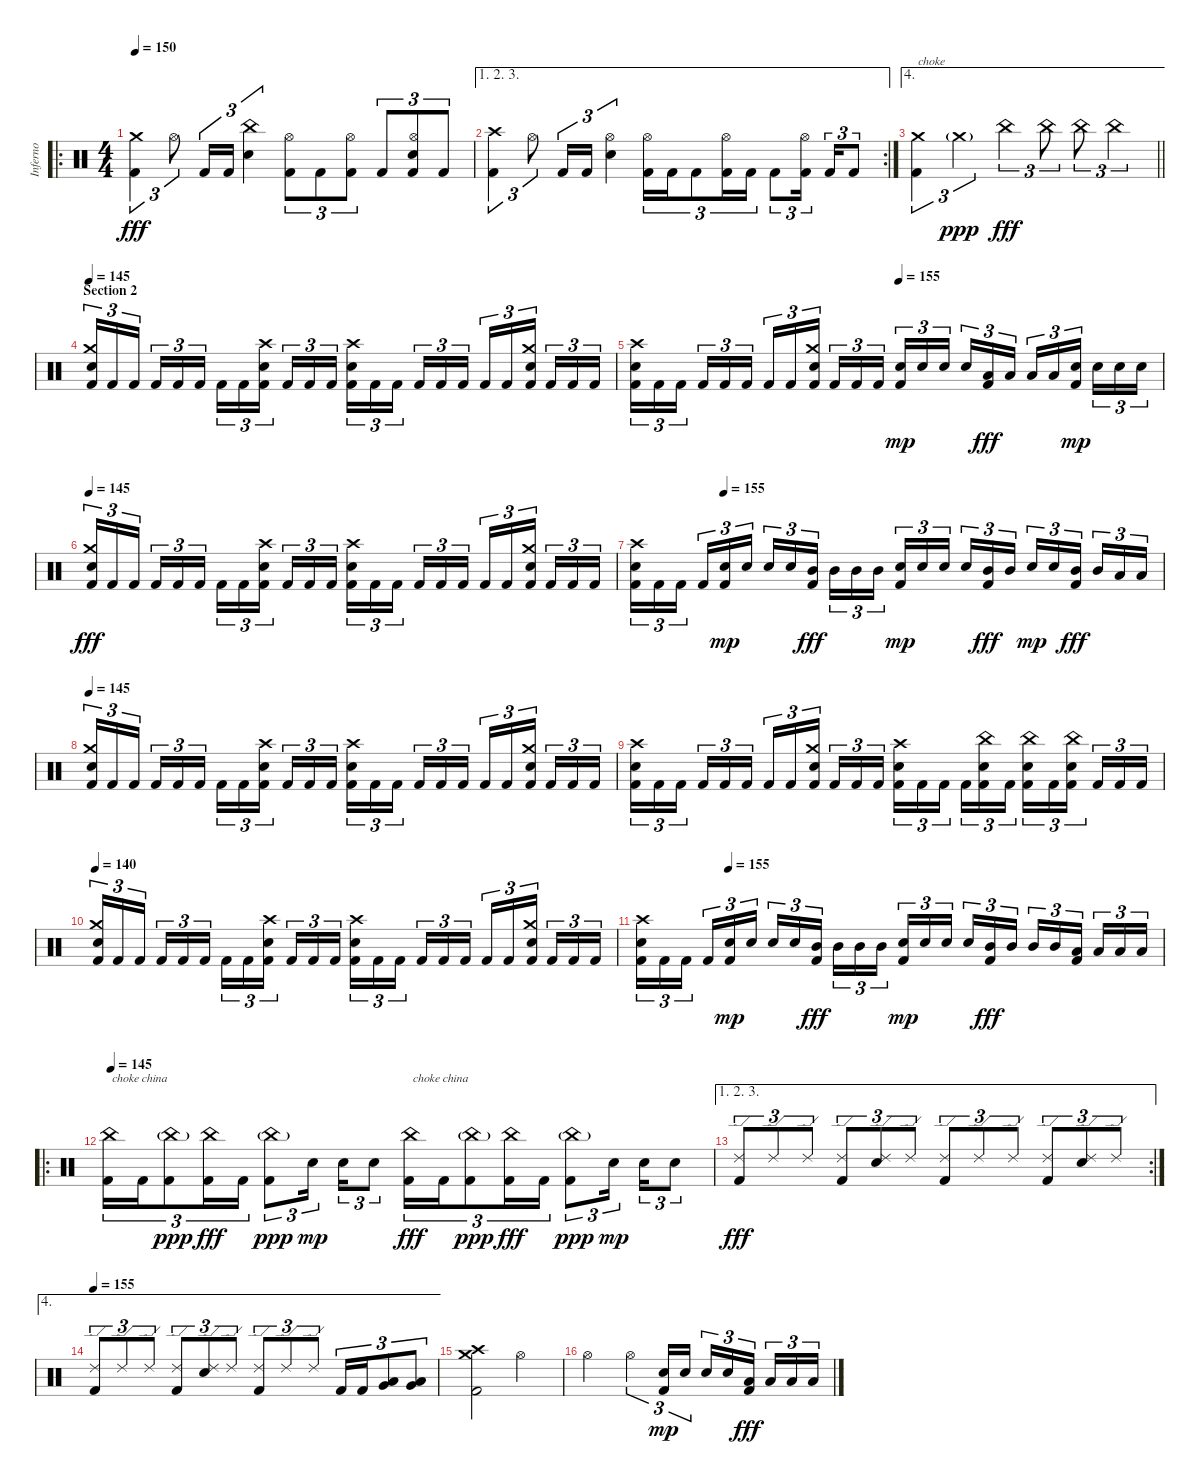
\track ("Inferno" "Inferno") {instrument percussion}
\staff {score}
\articulation defaults
\ro
\ts (4 4)
\tempo 150
\clef neutral
\ks c
("Kick (hit) 2" "Crash medium (hit)").4{tu (3 2) dy fff} "Hi-Hat (open)".8{tu (3 2)} "Kick (hit) 2".16{tu (3 2)} "Kick (hit) 2".16{tu (3 2)} ("Electric Snare (hit)" "China (hit)").4{tu (3 2)} ("Kick (hit) 2" "Hi-Hat (open)").8{tu (3 2)} "Kick (hit) 2".8{tu (3 2)} ("Kick (hit) 2" "Hi-Hat (open)").8{tu (3 2)} "Kick (hit) 2".8{tu (3 2)} ("Kick (hit) 2" "Electric Snare (hit)" "Hi-Hat (open)").8{tu (3 2)} "Kick (hit) 2".8{tu (3 2)} |
\ae (1 2 3)
\rc 2
("Kick (hit) 2" "Crash high (hit)").4{tu (3 2)} "Hi-Hat (open)".8{tu (3 2)} "Kick (hit) 2".16{tu (3 2)} "Kick (hit) 2".16{tu (3 2)} ("Electric Snare (hit)" "Hi-Hat (open)").4{tu (3 2)} ("Kick (hit) 2" "Hi-Hat (open)").16{tu (3 2)} "Kick (hit) 2".16{tu (3 2)} "Kick (hit) 2".8{tu (3 2)} ("Kick (hit) 2" "Hi-Hat (open)").16{tu (3 2)} "Kick (hit) 2".16{tu (3 2)} "Kick (hit) 2".8{tu (3 2)} ("Kick (hit) 2" "Hi-Hat (open)").16{tu (3 2) beam splitsecondary} "Kick (hit) 2".16{tu (3 2)} "Kick (hit) 2".8{tu (3 2)} |
\ae 4
\barLineRight lightlight
("Kick (hit) 2" "Crash medium (hit)").4{tu (3 2) txt "choke"} "Crash medium (hit)"{g}.2{tu (3 2) dy ppp} "China (hit)".4{tu (3 2) dy fff} "China (hit)".8{tu (3 2)} "China (hit)".8{tu (3 2)} "China (hit)".4{tu (3 2)} |
\section ("" "Section 2")
\tempo 145
("Kick (hit) 2" "Electric Snare (hit)" "Crash medium (hit)").16{tu (3 2)} "Kick (hit) 2".16{tu (3 2)} "Kick (hit) 2".16{tu (3 2) beam splitsecondary} "Kick (hit) 2".16{tu (3 2)} "Kick (hit) 2".16{tu (3 2)} "Kick (hit) 2".16{tu (3 2)} "Kick (hit) 2".16{tu (3 2)} "Kick (hit) 2".16{tu (3 2)} ("Kick (hit) 2" "Electric Snare (hit)" "Crash high (hit)").16{tu (3 2) beam splitsecondary} "Kick (hit) 2".16{tu (3 2)} "Kick (hit) 2".16{tu (3 2)} "Kick (hit) 2".16{tu (3 2)} ("Kick (hit) 2" "Electric Snare (hit)" "Crash high (hit)").16{tu (3 2)} "Kick (hit) 2".16{tu (3 2)} "Kick (hit) 2".16{tu (3 2) beam splitsecondary} "Kick (hit) 2".16{tu (3 2)} "Kick (hit) 2".16{tu (3 2)} "Kick (hit) 2".16{tu (3 2)} "Kick (hit) 2".16{tu (3 2)} "Kick (hit) 2".16{tu (3 2)} ("Kick (hit) 2" "Electric Snare (hit)" "Crash medium (hit)").16{tu (3 2) beam splitsecondary} "Kick (hit) 2".16{tu (3 2)} "Kick (hit) 2".16{tu (3 2)} "Kick (hit) 2".16{tu (3 2)} |
\tempo (155 0.5)
("Kick (hit) 2" "Electric Snare (hit)" "Crash high (hit)").16{tu (3 2)} "Kick (hit) 2".16{tu (3 2)} "Kick (hit) 2".16{tu (3 2) beam splitsecondary} "Kick (hit) 2".16{tu (3 2)} "Kick (hit) 2".16{tu (3 2)} "Kick (hit) 2".16{tu (3 2)} "Kick (hit) 2".16{tu (3 2)} "Kick (hit) 2".16{tu (3 2)} ("Kick (hit) 2" "Electric Snare (hit)" "Crash medium (hit)").16{tu (3 2) beam splitsecondary} "Kick (hit) 2".16{tu (3 2)} "Kick (hit) 2".16{tu (3 2)} "Kick (hit) 2".16{tu (3 2)} ("Kick (hit) 2" "Electric Snare (hit)").16{tu (3 2) dy mp} "Electric Snare (hit)".16{tu (3 2)} "Electric Snare (hit)".16{tu (3 2) beam splitsecondary} "Electric Snare (hit)".16{tu (3 2)} ("Kick (hit) 2" "Low Tom (hit)").16{tu (3 2) dy fff} "Low Tom (hit)".16{tu (3 2)} "Low Tom (hit)".16{tu (3 2)} "Low Tom (hit)".16{tu (3 2)} ("Kick (hit) 2" "Electric Snare (hit)").16{tu (3 2) dy mp beam splitsecondary} "Electric Snare (hit)".16{tu (3 2)} "Electric Snare (hit)".16{tu (3 2)} "Electric Snare (hit)".16{tu (3 2)} |
\tempo 145
("Kick (hit) 2" "Electric Snare (hit)" "Crash medium (hit)").16{tu (3 2) dy fff} "Kick (hit) 2".16{tu (3 2)} "Kick (hit) 2".16{tu (3 2) beam splitsecondary} "Kick (hit) 2".16{tu (3 2)} "Kick (hit) 2".16{tu (3 2)} "Kick (hit) 2".16{tu (3 2)} "Kick (hit) 2".16{tu (3 2)} "Kick (hit) 2".16{tu (3 2)} ("Kick (hit) 2" "Electric Snare (hit)" "Crash high (hit)").16{tu (3 2) beam splitsecondary} "Kick (hit) 2".16{tu (3 2)} "Kick (hit) 2".16{tu (3 2)} "Kick (hit) 2".16{tu (3 2)} ("Kick (hit) 2" "Electric Snare (hit)" "Crash high (hit)").16{tu (3 2)} "Kick (hit) 2".16{tu (3 2)} "Kick (hit) 2".16{tu (3 2) beam splitsecondary} "Kick (hit) 2".16{tu (3 2)} "Kick (hit) 2".16{tu (3 2)} "Kick (hit) 2".16{tu (3 2)} "Kick (hit) 2".16{tu (3 2)} "Kick (hit) 2".16{tu (3 2)} ("Kick (hit) 2" "Electric Snare (hit)" "Crash medium (hit)").16{tu (3 2) beam splitsecondary} "Kick (hit) 2".16{tu (3 2)} "Kick (hit) 2".16{tu (3 2)} "Kick (hit) 2".16{tu (3 2)} |
\tempo (155 0.16666666666666666)
("Kick (hit) 2" "Electric Snare (hit)" "Crash high (hit)").16{tu (3 2)} "Kick (hit) 2".16{tu (3 2)} "Kick (hit) 2".16{tu (3 2) beam splitsecondary} "Kick (hit) 2".16{tu (3 2)} ("Kick (hit) 2" "Electric Snare (hit)").16{tu (3 2) dy mp} "Electric Snare (hit)".16{tu (3 2)} "Electric Snare (hit)".16{tu (3 2)} "Electric Snare (hit)".16{tu (3 2)} ("Kick (hit) 2" "Mid Tom (hit)").16{tu (3 2) dy fff beam splitsecondary} "Mid Tom (hit)".16{tu (3 2)} "Mid Tom (hit)".16{tu (3 2)} "Mid Tom (hit)".16{tu (3 2)} ("Kick (hit) 2" "Electric Snare (hit)").16{tu (3 2) dy mp} "Electric Snare (hit)".16{tu (3 2)} "Electric Snare (hit)".16{tu (3 2) beam splitsecondary} "Electric Snare (hit)".16{tu (3 2)} ("Kick (hit) 2" "Mid Tom (hit)").16{tu (3 2) dy fff} "Mid Tom (hit)".16{tu (3 2)} "Electric Snare (hit)".16{tu (3 2) dy mp} "Electric Snare (hit)".16{tu (3 2)} ("Kick (hit) 2" "Mid Tom (hit)").16{tu (3 2) dy fff beam splitsecondary} "Mid Tom (hit)".16{tu (3 2)} "Low Tom (hit)".16{tu (3 2)} "Low Tom (hit)".16{tu (3 2)} |
\tempo 145
("Kick (hit) 2" "Electric Snare (hit)" "Crash medium (hit)").16{tu (3 2)} "Kick (hit) 2".16{tu (3 2)} "Kick (hit) 2".16{tu (3 2) beam splitsecondary} "Kick (hit) 2".16{tu (3 2)} "Kick (hit) 2".16{tu (3 2)} "Kick (hit) 2".16{tu (3 2)} "Kick (hit) 2".16{tu (3 2)} "Kick (hit) 2".16{tu (3 2)} ("Kick (hit) 2" "Electric Snare (hit)" "Crash high (hit)").16{tu (3 2) beam splitsecondary} "Kick (hit) 2".16{tu (3 2)} "Kick (hit) 2".16{tu (3 2)} "Kick (hit) 2".16{tu (3 2)} ("Kick (hit) 2" "Electric Snare (hit)" "Crash high (hit)").16{tu (3 2)} "Kick (hit) 2".16{tu (3 2)} "Kick (hit) 2".16{tu (3 2) beam splitsecondary} "Kick (hit) 2".16{tu (3 2)} "Kick (hit) 2".16{tu (3 2)} "Kick (hit) 2".16{tu (3 2)} "Kick (hit) 2".16{tu (3 2)} "Kick (hit) 2".16{tu (3 2)} ("Kick (hit) 2" "Electric Snare (hit)" "Crash medium (hit)").16{tu (3 2) beam splitsecondary} "Kick (hit) 2".16{tu (3 2)} "Kick (hit) 2".16{tu (3 2)} "Kick (hit) 2".16{tu (3 2)} |
("Kick (hit) 2" "Electric Snare (hit)" "Crash high (hit)").16{tu (3 2)} "Kick (hit) 2".16{tu (3 2)} "Kick (hit) 2".16{tu (3 2) beam splitsecondary} "Kick (hit) 2".16{tu (3 2)} "Kick (hit) 2".16{tu (3 2)} "Kick (hit) 2".16{tu (3 2)} "Kick (hit) 2".16{tu (3 2)} "Kick (hit) 2".16{tu (3 2)} ("Kick (hit) 2" "Electric Snare (hit)" "Crash medium (hit)").16{tu (3 2) beam splitsecondary} "Kick (hit) 2".16{tu (3 2)} "Kick (hit) 2".16{tu (3 2)} "Kick (hit) 2".16{tu (3 2)} ("Kick (hit) 2" "Electric Snare (hit)" "Crash high (hit)").16{tu (3 2)} "Kick (hit) 2".16{tu (3 2)} "Kick (hit) 2".16{tu (3 2) beam splitsecondary} "Kick (hit) 2".16{tu (3 2)} ("Kick (hit) 2" "Electric Snare (hit)" "China (hit)").16{tu (3 2)} "Kick (hit) 2".16{tu (3 2)} ("Kick (hit) 2" "Electric Snare (hit)" "China (hit)").16{tu (3 2)} "Kick (hit) 2".16{tu (3 2)} ("Kick (hit) 2" "Electric Snare (hit)" "China (hit)").16{tu (3 2) beam splitsecondary} "Kick (hit) 2".16{tu (3 2)} "Kick (hit) 2".16{tu (3 2)} "Kick (hit) 2".16{tu (3 2)} |
\tempo 140
("Kick (hit) 2" "Electric Snare (hit)" "Crash medium (hit)").16{tu (3 2)} "Kick (hit) 2".16{tu (3 2)} "Kick (hit) 2".16{tu (3 2) beam splitsecondary} "Kick (hit) 2".16{tu (3 2)} "Kick (hit) 2".16{tu (3 2)} "Kick (hit) 2".16{tu (3 2)} "Kick (hit) 2".16{tu (3 2)} "Kick (hit) 2".16{tu (3 2)} ("Kick (hit) 2" "Electric Snare (hit)" "Crash high (hit)").16{tu (3 2) beam splitsecondary} "Kick (hit) 2".16{tu (3 2)} "Kick (hit) 2".16{tu (3 2)} "Kick (hit) 2".16{tu (3 2)} ("Kick (hit) 2" "Electric Snare (hit)" "Crash high (hit)").16{tu (3 2)} "Kick (hit) 2".16{tu (3 2)} "Kick (hit) 2".16{tu (3 2) beam splitsecondary} "Kick (hit) 2".16{tu (3 2)} "Kick (hit) 2".16{tu (3 2)} "Kick (hit) 2".16{tu (3 2)} "Kick (hit) 2".16{tu (3 2)} "Kick (hit) 2".16{tu (3 2)} ("Kick (hit) 2" "Electric Snare (hit)" "Crash medium (hit)").16{tu (3 2) beam splitsecondary} "Kick (hit) 2".16{tu (3 2)} "Kick (hit) 2".16{tu (3 2)} "Kick (hit) 2".16{tu (3 2)} |
\tempo (155 0.16666666666666666)
("Kick (hit) 2" "Electric Snare (hit)" "Crash high (hit)").16{tu (3 2)} "Kick (hit) 2".16{tu (3 2)} "Kick (hit) 2".16{tu (3 2) beam splitsecondary} "Kick (hit) 2".16{tu (3 2)} ("Kick (hit) 2" "Electric Snare (hit)").16{tu (3 2) dy mp} "Electric Snare (hit)".16{tu (3 2)} "Electric Snare (hit)".16{tu (3 2)} "Electric Snare (hit)".16{tu (3 2)} ("Kick (hit) 2" "Mid Tom (hit)").16{tu (3 2) dy fff beam splitsecondary} "Mid Tom (hit)".16{tu (3 2)} "Mid Tom (hit)".16{tu (3 2)} "Mid Tom (hit)".16{tu (3 2)} ("Kick (hit) 2" "Electric Snare (hit)").16{tu (3 2) dy mp} "Electric Snare (hit)".16{tu (3 2)} "Electric Snare (hit)".16{tu (3 2) beam splitsecondary} "Electric Snare (hit)".16{tu (3 2)} ("Kick (hit) 2" "Mid Tom (hit)").16{tu (3 2) dy fff} "Mid Tom (hit)".16{tu (3 2)} "Mid Tom (hit)".16{tu (3 2)} "Mid Tom (hit)".16{tu (3 2)} ("Kick (hit) 2" "Low Tom (hit)").16{tu (3 2) beam splitsecondary} "Low Tom (hit)".16{tu (3 2)} "Low Tom (hit)".16{tu (3 2)} "Low Tom (hit)".16{tu (3 2)} |
\ro
\tempo 145
("Kick (hit) 2" "China (hit)").16{tu (3 2) txt "choke china"} "Kick (hit) 2".16{tu (3 2)} ("Kick (hit) 2" "China (hit)"{g}).8{tu (3 2) dy ppp} ("Kick (hit) 2" "China (hit)").16{tu (3 2) dy fff} "Kick (hit) 2".16{tu (3 2)} ("Kick (hit) 2" "China (hit)"{g}).8{tu (3 2) dy ppp} "Electric Snare (hit)".16{tu (3 2) dy mp beam splitsecondary} "Electric Snare (hit)".16{tu (3 2)} "Electric Snare (hit)".8{tu (3 2)} ("Kick (hit) 2" "China (hit)").16{tu (3 2) txt "choke china" dy fff} "Kick (hit) 2".16{tu (3 2)} ("Kick (hit) 2" "China (hit)"{g}).8{tu (3 2) dy ppp} ("Kick (hit) 2" "China (hit)").16{tu (3 2) dy fff} "Kick (hit) 2".16{tu (3 2)} ("Kick (hit) 2" "China (hit)"{g}).8{tu (3 2) dy ppp} "Electric Snare (hit)".16{tu (3 2) dy mp beam splitsecondary} "Electric Snare (hit)".16{tu (3 2)} "Electric Snare (hit)".8{tu (3 2)} |
\ae (1 2 3)
\rc 2
("Kick (hit) 2" "Ride (edge) 2").8{tu (3 2) dy fff} "Ride (edge) 2".8{tu (3 2)} "Ride (edge) 2".8{tu (3 2)} ("Kick (hit) 2" "Ride (edge) 2").8{tu (3 2)} ("Electric Snare (hit)" "Ride (edge) 2").8{tu (3 2)} "Ride (edge) 2".8{tu (3 2)} ("Kick (hit) 2" "Ride (edge) 2").8{tu (3 2)} "Ride (edge) 2".8{tu (3 2)} "Ride (edge) 2".8{tu (3 2)} ("Kick (hit) 2" "Ride (edge) 2").8{tu (3 2)} ("Electric Snare (hit)" "Ride (edge) 2").8{tu (3 2)} "Ride (edge) 2".8{tu (3 2)} |
\ae 4
\tempo 155
("Kick (hit) 2" "Ride (edge) 2").8{tu (3 2)} "Ride (edge) 2".8{tu (3 2)} "Ride (edge) 2".8{tu (3 2)} ("Kick (hit) 2" "Ride (edge) 2").8{tu (3 2)} ("Electric Snare (hit)" "Ride (edge) 2").8{tu (3 2)} "Ride (edge) 2".8{tu (3 2)} ("Kick (hit) 2" "Ride (edge) 2").8{tu (3 2)} "Ride (edge) 2".8{tu (3 2)} "Ride (edge) 2".8{tu (3 2)} "Kick (hit) 2".16{tu (3 2)} "Kick (hit) 2".16{tu (3 2)} ("Low Tom (hit)" "Very Low Tom (hit)").8{tu (3 2)} ("Low Tom (hit)" "Very Low Tom (hit)").8{tu (3 2)} |
("Kick (hit) 2" "Crash medium (hit)" "Crash high (hit)").2 "Hi-Hat (open)".2 |
"Hi-Hat (open)".2 "Hi-Hat (open)".4{tu (3 2)} ("Kick (hit) 2" "Electric Snare (hit)").16{tu (3 2) dy mp} "Electric Snare (hit)".16{tu (3 2)} "Electric Snare (hit)".16{tu (3 2)} "Electric Snare (hit)".16{tu (3 2)} ("Kick (hit) 2" "Low Tom (hit)").16{tu (3 2) dy fff beam splitsecondary} "Low Tom (hit)".16{tu (3 2)} "Low Tom (hit)".16{tu (3 2)} "Low Tom (hit)".16{tu (3 2)}
